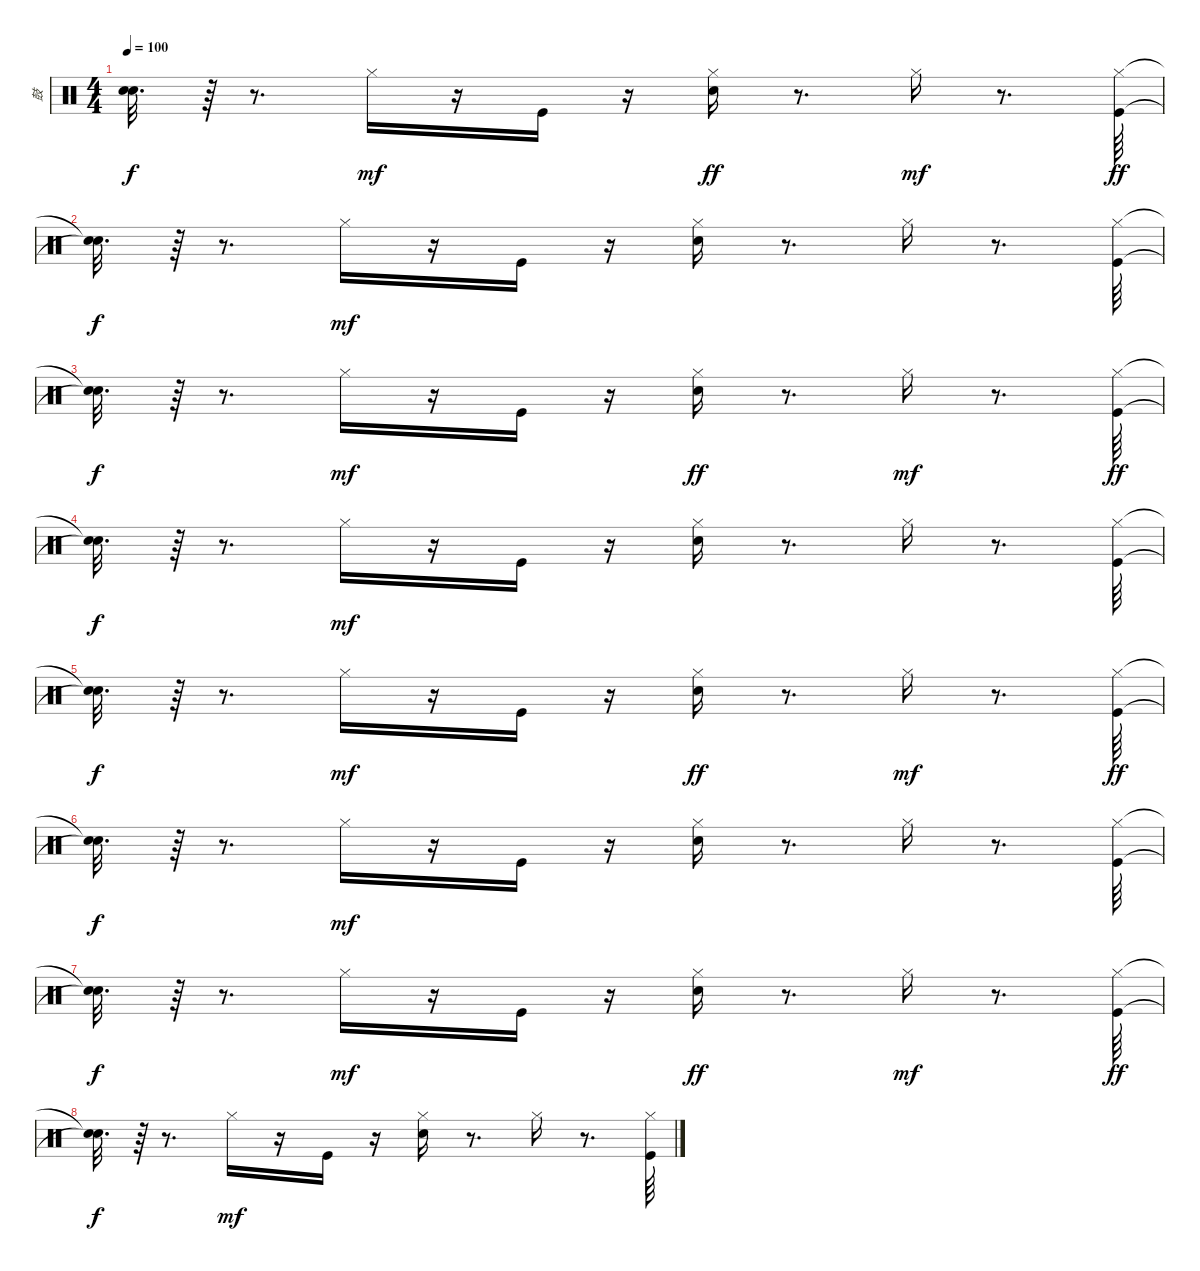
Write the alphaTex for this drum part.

\track ("鼓" "鼓") {instrument percussion}
\staff {score}
\articulation defaults
\ts (4 4)
\tempo 100
\clef neutral
\ks c
("Snare (hit)"{t} "Snare (hit)"{t}).32{d dy f} r.64 r.8{d} "Hi-Hat (closed)".16{dy mf} r.16 "Kick (hit)".16 r.16 ("Hi-Hat (closed)" "Electric Snare (hit)").16{dy ff} r.8{d} "Hi-Hat (closed)".16{dy mf} r.8{d} ("Kick (hit)" "Hi-Hat (closed)").64{dy ff} |
("Snare (hit)"{t} "Snare (hit)"{t}).32{d dy f} r.64 r.8{d} "Hi-Hat (closed)".16{dy mf} r.16 "Kick (hit)".16 r.16 ("Electric Snare (hit)" "Hi-Hat (closed)").16 r.8{d} "Hi-Hat (closed)".16 r.8{d} ("Kick (hit)" "Hi-Hat (closed)").64 |
("Snare (hit)"{t} "Snare (hit)"{t}).32{d dy f} r.64 r.8{d} "Hi-Hat (closed)".16{dy mf} r.16 "Kick (hit)".16 r.16 ("Hi-Hat (closed)" "Electric Snare (hit)").16{dy ff} r.8{d} "Hi-Hat (closed)".16{dy mf} r.8{d} ("Kick (hit)" "Hi-Hat (closed)").64{dy ff} |
("Snare (hit)"{t} "Snare (hit)"{t}).32{d dy f} r.64 r.8{d} "Hi-Hat (closed)".16{dy mf} r.16 "Kick (hit)".16 r.16 ("Electric Snare (hit)" "Hi-Hat (closed)").16 r.8{d} "Hi-Hat (closed)".16 r.8{d} ("Kick (hit)" "Hi-Hat (closed)").64 |
("Snare (hit)"{t} "Snare (hit)"{t}).32{d dy f} r.64 r.8{d} "Hi-Hat (closed)".16{dy mf} r.16 "Kick (hit)".16 r.16 ("Hi-Hat (closed)" "Electric Snare (hit)").16{dy ff} r.8{d} "Hi-Hat (closed)".16{dy mf} r.8{d} ("Kick (hit)" "Hi-Hat (closed)").64{dy ff} |
("Snare (hit)"{t} "Snare (hit)"{t}).32{d dy f} r.64 r.8{d} "Hi-Hat (closed)".16{dy mf} r.16 "Kick (hit)".16 r.16 ("Electric Snare (hit)" "Hi-Hat (closed)").16 r.8{d} "Hi-Hat (closed)".16 r.8{d} ("Kick (hit)" "Hi-Hat (closed)").64 |
("Snare (hit)"{t} "Snare (hit)"{t}).32{d dy f} r.64 r.8{d} "Hi-Hat (closed)".16{dy mf} r.16 "Kick (hit)".16 r.16 ("Hi-Hat (closed)" "Electric Snare (hit)").16{dy ff} r.8{d} "Hi-Hat (closed)".16{dy mf} r.8{d} ("Kick (hit)" "Hi-Hat (closed)").64{dy ff} |
("Snare (hit)"{t} "Snare (hit)"{t}).32{d dy f} r.64 r.8{d} "Hi-Hat (closed)".16{dy mf} r.16 "Kick (hit)".16 r.16 ("Electric Snare (hit)" "Hi-Hat (closed)").16 r.8{d} "Hi-Hat (closed)".16 r.8{d} ("Kick (hit)" "Hi-Hat (closed)").64
